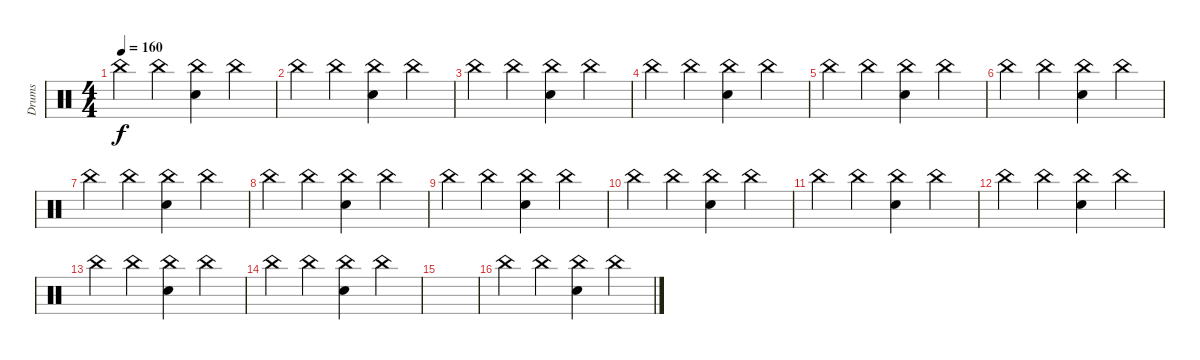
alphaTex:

\track ("Drums" "Drums") {instrument percussion}
\staff {score}
\articulation defaults
\ts (4 4)
\tempo 160
\clef neutral
\ks c "China (hit)".4{dy f} "China (hit)".4
("China (hit)" "Electric Snare (hit)").4 "China (hit)".4 |
"China (hit)".4 "China (hit)".4 ("China (hit)" "Electric Snare (hit)").4 "China (hit)".4 |
"China (hit)".4 "China (hit)".4 ("China (hit)" "Electric Snare (hit)").4 "China (hit)".4 |
"China (hit)".4 "China (hit)".4 ("China (hit)" "Electric Snare (hit)").4 "China (hit)".4 |
"China (hit)".4 "China (hit)".4 ("China (hit)" "Electric Snare (hit)").4 "China (hit)".4 |
"China (hit)".4 "China (hit)".4 ("China (hit)" "Electric Snare (hit)").4 "China (hit)".4 |
"China (hit)".4 "China (hit)".4 ("China (hit)" "Electric Snare (hit)").4 "China (hit)".4 |
"China (hit)".4 "China (hit)".4 ("China (hit)" "Electric Snare (hit)").4 "China (hit)".4 |
"China (hit)".4 "China (hit)".4 ("China (hit)" "Electric Snare (hit)").4 "China (hit)".4 |
"China (hit)".4 "China (hit)".4 ("China (hit)" "Electric Snare (hit)").4 "China (hit)".4 |
"China (hit)".4 "China (hit)".4 ("China (hit)" "Electric Snare (hit)").4 "China (hit)".4 |
"China (hit)".4 "China (hit)".4 ("China (hit)" "Electric Snare (hit)").4 "China (hit)".4 |
"China (hit)".4 "China (hit)".4 ("China (hit)" "Electric Snare (hit)").4 "China (hit)".4 |
"China (hit)".4 "China (hit)".4 ("China (hit)" "Electric Snare (hit)").4 "China (hit)".4 |
|
"China (hit)".4 "China (hit)".4 ("China (hit)" "Electric Snare (hit)").4 "China (hit)".4
